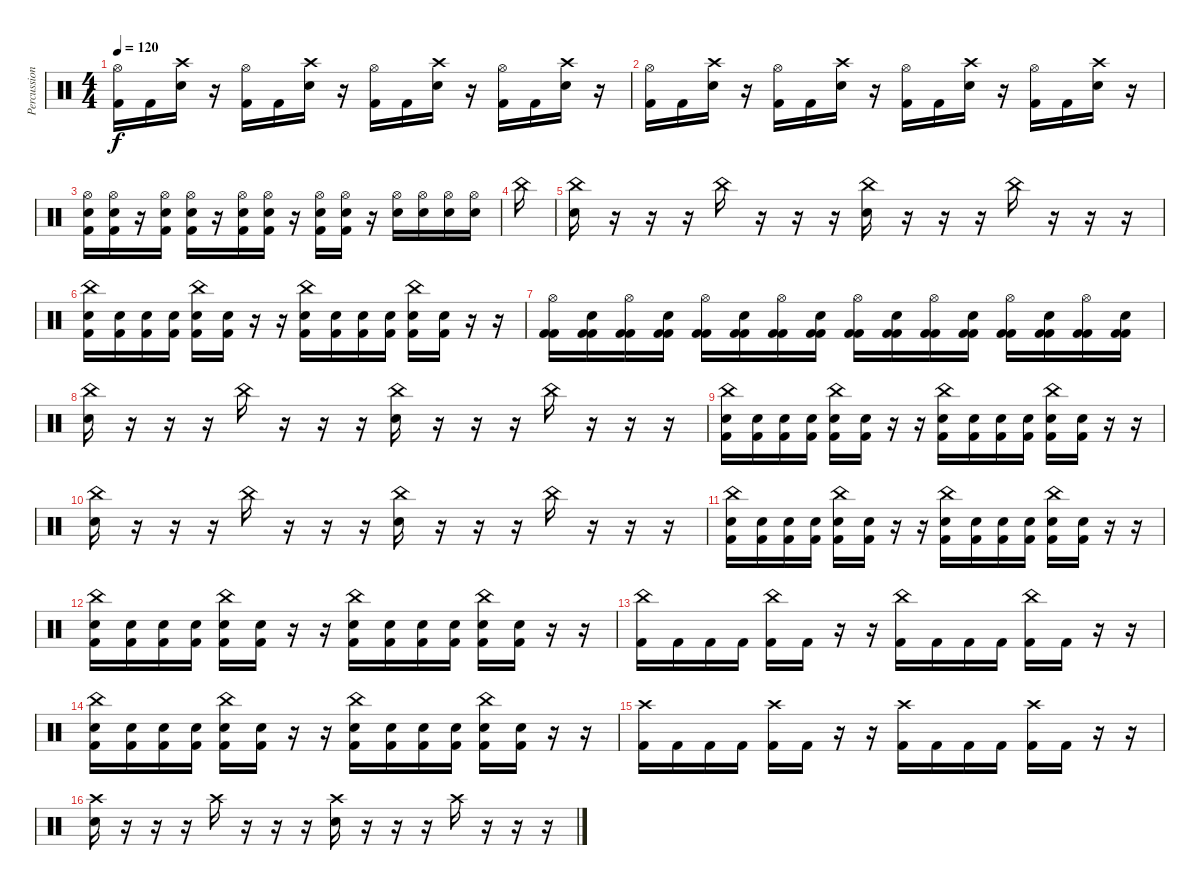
\track ("Percussion" "Percussion") {instrument percussion}
\staff {score}
\articulation defaults
\ts (4 4)
\tempo 120
\clef neutral
\ks c
("Hi-Hat (open)" "Kick (hit) 2").16{dy f} "Kick (hit) 2".16 ("Crash high (hit)" "Electric Snare (hit)").16 r.16 ("Hi-Hat (open)" "Kick (hit) 2").16 "Kick (hit) 2".16 ("Crash high (hit)" "Electric Snare (hit)").16 r.16 ("Hi-Hat (open)" "Kick (hit) 2").16 "Kick (hit) 2".16 ("Crash high (hit)" "Electric Snare (hit)").16 r.16 ("Hi-Hat (open)" "Kick (hit) 2").16 "Kick (hit) 2".16 ("Crash high (hit)" "Electric Snare (hit)").16 r.16 |
("Hi-Hat (open)" "Kick (hit) 2").16 "Kick (hit) 2".16 ("Crash high (hit)" "Electric Snare (hit)").16 r.16 ("Hi-Hat (open)" "Kick (hit) 2").16 "Kick (hit) 2".16 ("Crash high (hit)" "Electric Snare (hit)").16 r.16 ("Hi-Hat (open)" "Kick (hit) 2").16 "Kick (hit) 2".16 ("Crash high (hit)" "Electric Snare (hit)").16 r.16 ("Hi-Hat (open)" "Kick (hit) 2").16 "Kick (hit) 2".16 ("Crash high (hit)" "Electric Snare (hit)").16 r.16 |
("Hi-Hat (open)" "Electric Snare (hit)" "Kick (hit) 2").16 ("Hi-Hat (open)" "Electric Snare (hit)" "Kick (hit) 2").16 r.16 ("Hi-Hat (open)" "Electric Snare (hit)" "Kick (hit) 2").16 ("Hi-Hat (open)" "Electric Snare (hit)" "Kick (hit) 2").16 r.16 ("Hi-Hat (open)" "Electric Snare (hit)" "Kick (hit) 2").16 ("Hi-Hat (open)" "Electric Snare (hit)" "Kick (hit) 2").16 r.16 ("Hi-Hat (open)" "Electric Snare (hit)" "Kick (hit) 2").16 ("Hi-Hat (open)" "Electric Snare (hit)" "Kick (hit) 2").16 r.16 ("Hi-Hat (open)" "Electric Snare (hit)").16 ("Hi-Hat (open)" "Electric Snare (hit)").16 ("Hi-Hat (open)" "Electric Snare (hit)").16 ("Hi-Hat (open)" "Electric Snare (hit)").16 |
"China (hit)".16 |
("China (hit)" "Electric Snare (hit)").16 r.16 r.16 r.16 "China (hit)".16 r.16 r.16 r.16 ("China (hit)" "Electric Snare (hit)").16 r.16 r.16 r.16 "China (hit)".16 r.16 r.16 r.16 |
("China (hit)" "Electric Snare (hit)" "Kick (hit) 2").16 ("Electric Snare (hit)" "Kick (hit) 2").16 ("Electric Snare (hit)" "Kick (hit) 2").16 ("Electric Snare (hit)" "Kick (hit) 2").16 ("China (hit)" "Electric Snare (hit)" "Kick (hit) 2").16 ("Electric Snare (hit)" "Kick (hit) 2").16 r.16 r.16 ("China (hit)" "Electric Snare (hit)" "Kick (hit) 2").16 ("Electric Snare (hit)" "Kick (hit) 2").16 ("Electric Snare (hit)" "Kick (hit) 2").16 ("Electric Snare (hit)" "Kick (hit) 2").16 ("China (hit)" "Electric Snare (hit)" "Kick (hit) 2").16 ("Electric Snare (hit)" "Kick (hit) 2").16 r.16 r.16 |
("Kick (hit) 2" "Hi-Hat (open)" "Kick (hit) 2").16 ("Kick (hit) 2" "Electric Snare (hit)" "Kick (hit) 2").16 ("Kick (hit) 2" "Hi-Hat (open)" "Kick (hit) 2").16 ("Kick (hit) 2" "Electric Snare (hit)" "Kick (hit) 2").16 ("Kick (hit) 2" "Hi-Hat (open)" "Kick (hit) 2").16 ("Kick (hit) 2" "Electric Snare (hit)" "Kick (hit) 2").16 ("Kick (hit) 2" "Hi-Hat (open)" "Kick (hit) 2").16 ("Kick (hit) 2" "Electric Snare (hit)" "Kick (hit) 2").16 ("Kick (hit) 2" "Hi-Hat (open)" "Kick (hit) 2").16 ("Kick (hit) 2" "Electric Snare (hit)" "Kick (hit) 2").16 ("Kick (hit) 2" "Hi-Hat (open)" "Kick (hit) 2").16 ("Kick (hit) 2" "Electric Snare (hit)" "Kick (hit) 2").16 ("Kick (hit) 2" "Hi-Hat (open)" "Kick (hit) 2").16 ("Kick (hit) 2" "Electric Snare (hit)" "Kick (hit) 2").16 ("Kick (hit) 2" "Hi-Hat (open)" "Kick (hit) 2").16 ("Kick (hit) 2" "Electric Snare (hit)" "Kick (hit) 2").16 |
("China (hit)" "Electric Snare (hit)").16 r.16 r.16 r.16 "China (hit)".16 r.16 r.16 r.16 ("China (hit)" "Electric Snare (hit)").16 r.16 r.16 r.16 "China (hit)".16 r.16 r.16 r.16 |
("China (hit)" "Electric Snare (hit)" "Kick (hit) 2").16 ("Electric Snare (hit)" "Kick (hit) 2").16 ("Electric Snare (hit)" "Kick (hit) 2").16 ("Electric Snare (hit)" "Kick (hit) 2").16 ("China (hit)" "Electric Snare (hit)" "Kick (hit) 2").16 ("Electric Snare (hit)" "Kick (hit) 2").16 r.16 r.16 ("China (hit)" "Electric Snare (hit)" "Kick (hit) 2").16 ("Electric Snare (hit)" "Kick (hit) 2").16 ("Electric Snare (hit)" "Kick (hit) 2").16 ("Electric Snare (hit)" "Kick (hit) 2").16 ("China (hit)" "Electric Snare (hit)" "Kick (hit) 2").16 ("Electric Snare (hit)" "Kick (hit) 2").16 r.16 r.16 |
("China (hit)" "Electric Snare (hit)").16 r.16 r.16 r.16 "China (hit)".16 r.16 r.16 r.16 ("China (hit)" "Electric Snare (hit)").16 r.16 r.16 r.16 "China (hit)".16 r.16 r.16 r.16 |
("China (hit)" "Electric Snare (hit)" "Kick (hit) 2").16 ("Electric Snare (hit)" "Kick (hit) 2").16 ("Electric Snare (hit)" "Kick (hit) 2").16 ("Electric Snare (hit)" "Kick (hit) 2").16 ("China (hit)" "Electric Snare (hit)" "Kick (hit) 2").16 ("Electric Snare (hit)" "Kick (hit) 2").16 r.16 r.16 ("China (hit)" "Electric Snare (hit)" "Kick (hit) 2").16 ("Electric Snare (hit)" "Kick (hit) 2").16 ("Electric Snare (hit)" "Kick (hit) 2").16 ("Electric Snare (hit)" "Kick (hit) 2").16 ("China (hit)" "Electric Snare (hit)" "Kick (hit) 2").16 ("Electric Snare (hit)" "Kick (hit) 2").16 r.16 r.16 |
("China (hit)" "Electric Snare (hit)" "Kick (hit) 2").16 ("Electric Snare (hit)" "Kick (hit) 2").16 ("Electric Snare (hit)" "Kick (hit) 2").16 ("Electric Snare (hit)" "Kick (hit) 2").16 ("China (hit)" "Electric Snare (hit)" "Kick (hit) 2").16 ("Electric Snare (hit)" "Kick (hit) 2").16 r.16 r.16 ("China (hit)" "Electric Snare (hit)" "Kick (hit) 2").16 ("Electric Snare (hit)" "Kick (hit) 2").16 ("Electric Snare (hit)" "Kick (hit) 2").16 ("Electric Snare (hit)" "Kick (hit) 2").16 ("China (hit)" "Electric Snare (hit)" "Kick (hit) 2").16 ("Electric Snare (hit)" "Kick (hit) 2").16 r.16 r.16 |
("China (hit)" "Kick (hit) 2").16 "Kick (hit) 2".16 "Kick (hit) 2".16 "Kick (hit) 2".16 ("China (hit)" "Kick (hit) 2").16 "Kick (hit) 2".16 r.16 r.16 ("China (hit)" "Kick (hit) 2").16 "Kick (hit) 2".16 "Kick (hit) 2".16 "Kick (hit) 2".16 ("China (hit)" "Kick (hit) 2").16 "Kick (hit) 2".16 r.16 r.16 |
("China (hit)" "Electric Snare (hit)" "Kick (hit) 2").16 ("Electric Snare (hit)" "Kick (hit) 2").16 ("Electric Snare (hit)" "Kick (hit) 2").16 ("Electric Snare (hit)" "Kick (hit) 2").16 ("China (hit)" "Electric Snare (hit)" "Kick (hit) 2").16 ("Electric Snare (hit)" "Kick (hit) 2").16 r.16 r.16 ("China (hit)" "Electric Snare (hit)" "Kick (hit) 2").16 ("Electric Snare (hit)" "Kick (hit) 2").16 ("Electric Snare (hit)" "Kick (hit) 2").16 ("Electric Snare (hit)" "Kick (hit) 2").16 ("China (hit)" "Electric Snare (hit)" "Kick (hit) 2").16 ("Electric Snare (hit)" "Kick (hit) 2").16 r.16 r.16 |
("Crash high (hit)" "Kick (hit) 2").16 "Kick (hit) 2".16 "Kick (hit) 2".16 "Kick (hit) 2".16 ("Crash high (hit)" "Kick (hit) 2").16 "Kick (hit) 2".16 r.16 r.16 ("Crash high (hit)" "Kick (hit) 2").16 "Kick (hit) 2".16 "Kick (hit) 2".16 "Kick (hit) 2".16 ("Crash high (hit)" "Kick (hit) 2").16 "Kick (hit) 2".16 r.16 r.16 |
("Crash high (hit)" "Electric Snare (hit)").16 r.16 r.16 r.16 "Crash high (hit)".16 r.16 r.16 r.16 ("Crash high (hit)" "Electric Snare (hit)").16 r.16 r.16 r.16 "Crash high (hit)".16 r.16 r.16 r.16
